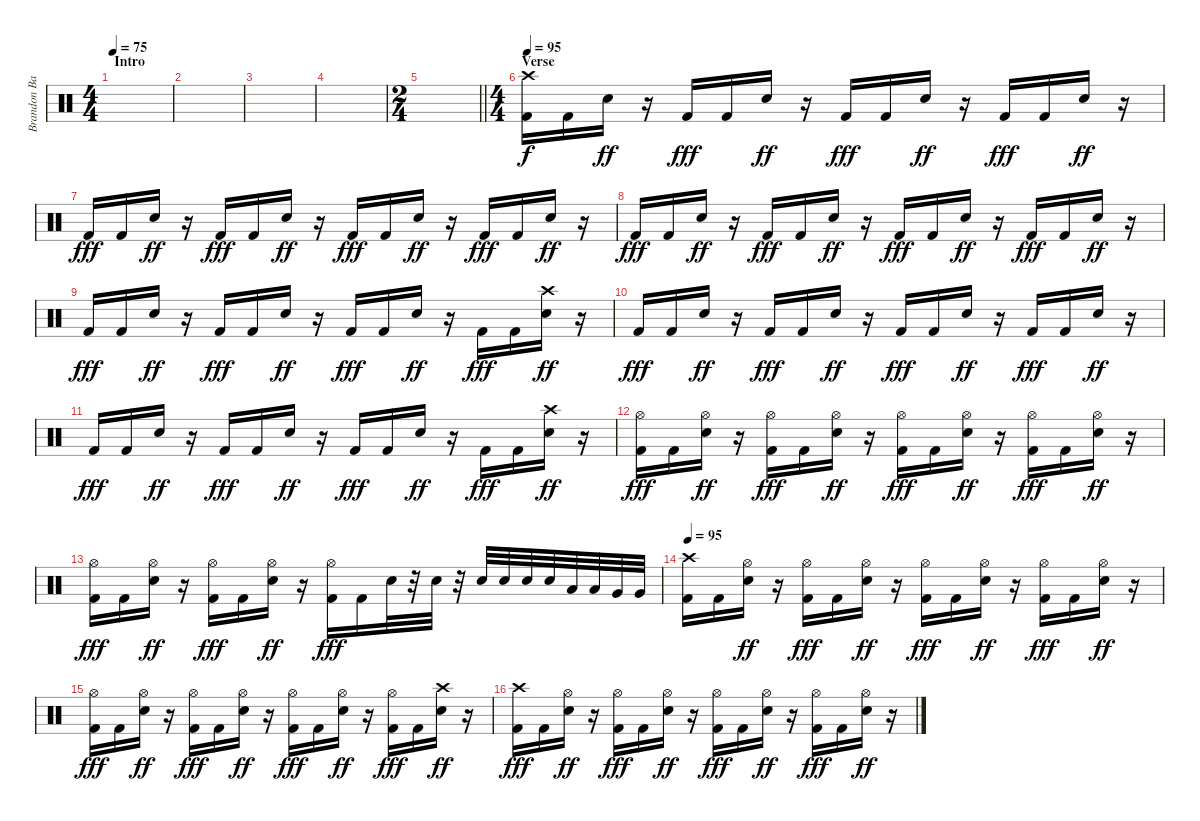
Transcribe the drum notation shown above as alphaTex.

\track ("Brandon Barnes" "Brandon Ba") {instrument percussion}
\staff {score}
\articulation defaults
\ts (4 4)
\section ("" "Intro")
\tempo 75
\clef neutral
\ks c
|
|
|
|
\ts (2 4)
\barLineRight lightlight
|
\ts (4 4)
\section ("" "Verse")
\tempo 95
("Crash high (hit)" "Kick (hit) 2").16 "Kick (hit) 2".16 "Electric Snare (hit)".16{dy ff} r.16 "Kick (hit) 2".16{dy fff} "Kick (hit) 2".16 "Electric Snare (hit)".16{dy ff} r.16 "Kick (hit) 2".16{dy fff} "Kick (hit) 2".16 "Electric Snare (hit)".16{dy ff} r.16 "Kick (hit) 2".16{dy fff} "Kick (hit) 2".16 "Electric Snare (hit)".16{dy ff} r.16 |
"Kick (hit) 2".16{dy fff} "Kick (hit) 2".16 "Electric Snare (hit)".16{dy ff} r.16 "Kick (hit) 2".16{dy fff} "Kick (hit) 2".16 "Electric Snare (hit)".16{dy ff} r.16 "Kick (hit) 2".16{dy fff} "Kick (hit) 2".16 "Electric Snare (hit)".16{dy ff} r.16 "Kick (hit) 2".16{dy fff} "Kick (hit) 2".16 "Electric Snare (hit)".16{dy ff} r.16 |
"Kick (hit) 2".16{dy fff} "Kick (hit) 2".16 "Electric Snare (hit)".16{dy ff} r.16 "Kick (hit) 2".16{dy fff} "Kick (hit) 2".16 "Electric Snare (hit)".16{dy ff} r.16 "Kick (hit) 2".16{dy fff} "Kick (hit) 2".16 "Electric Snare (hit)".16{dy ff} r.16 "Kick (hit) 2".16{dy fff} "Kick (hit) 2".16 "Electric Snare (hit)".16{dy ff} r.16 |
"Kick (hit) 2".16{dy fff} "Kick (hit) 2".16 "Electric Snare (hit)".16{dy ff} r.16 "Kick (hit) 2".16{dy fff} "Kick (hit) 2".16 "Electric Snare (hit)".16{dy ff} r.16 "Kick (hit) 2".16{dy fff} "Kick (hit) 2".16 "Electric Snare (hit)".16{dy ff} r.16 "Kick (hit) 2".16{dy fff} "Kick (hit) 2".16 ("Crash high (hit)" "Electric Snare (hit)").16{dy ff} r.16 |
"Kick (hit) 2".16{dy fff} "Kick (hit) 2".16 "Electric Snare (hit)".16{dy ff} r.16 "Kick (hit) 2".16{dy fff} "Kick (hit) 2".16 "Electric Snare (hit)".16{dy ff} r.16 "Kick (hit) 2".16{dy fff} "Kick (hit) 2".16 "Electric Snare (hit)".16{dy ff} r.16 "Kick (hit) 2".16{dy fff} "Kick (hit) 2".16 "Electric Snare (hit)".16{dy ff} r.16 |
"Kick (hit) 2".16{dy fff} "Kick (hit) 2".16 "Electric Snare (hit)".16{dy ff} r.16 "Kick (hit) 2".16{dy fff} "Kick (hit) 2".16 "Electric Snare (hit)".16{dy ff} r.16 "Kick (hit) 2".16{dy fff} "Kick (hit) 2".16 "Electric Snare (hit)".16{dy ff} r.16 "Kick (hit) 2".16{dy fff} "Kick (hit) 2".16 ("Crash high (hit)" "Electric Snare (hit)").16{dy ff} r.16 |
("Hi-Hat (open)" "Kick (hit) 2").16{dy fff} "Kick (hit) 2".16 ("Hi-Hat (open)" "Electric Snare (hit)").16{dy ff} r.16 ("Hi-Hat (open)" "Kick (hit) 2").16{dy fff} "Kick (hit) 2".16 ("Hi-Hat (open)" "Electric Snare (hit)").16{dy ff} r.16 ("Hi-Hat (open)" "Kick (hit) 2").16{dy fff} "Kick (hit) 2".16 ("Hi-Hat (open)" "Electric Snare (hit)").16{dy ff} r.16 ("Hi-Hat (open)" "Kick (hit) 2").16{dy fff} "Kick (hit) 2".16 ("Hi-Hat (open)" "Electric Snare (hit)").16{dy ff} r.16 |
("Hi-Hat (open)" "Kick (hit) 2").16{dy fff} "Kick (hit) 2".16 ("Hi-Hat (open)" "Electric Snare (hit)").16{dy ff} r.16 ("Hi-Hat (open)" "Kick (hit) 2").16{dy fff} "Kick (hit) 2".16 ("Hi-Hat (open)" "Electric Snare (hit)").16{dy ff} r.16 ("Hi-Hat (open)" "Kick (hit) 2").16{dy fff} "Kick (hit) 2".16 "Electric Snare (hit)".32 r.32 "Electric Snare (hit)".32 r.32 "Electric Snare (hit)".32 "Electric Snare (hit)".32 "Electric Snare (hit)".32 "Electric Snare (hit)".32 "Low Tom (hit)".32 "Low Tom (hit)".32 "Very Low Tom (hit)".32 "Very Low Tom (hit)".32 |
\tempo 95
("Crash high (hit)" "Kick (hit) 2").16 "Kick (hit) 2".16 ("Hi-Hat (open)" "Electric Snare (hit)").16{dy ff} r.16 ("Hi-Hat (open)" "Kick (hit) 2").16{dy fff} "Kick (hit) 2".16 ("Hi-Hat (open)" "Electric Snare (hit)").16{dy ff} r.16 ("Hi-Hat (open)" "Kick (hit) 2").16{dy fff} "Kick (hit) 2".16 ("Hi-Hat (open)" "Electric Snare (hit)").16{dy ff} r.16 ("Hi-Hat (open)" "Kick (hit) 2").16{dy fff} "Kick (hit) 2".16 ("Hi-Hat (open)" "Electric Snare (hit)").16{dy ff} r.16 |
("Hi-Hat (open)" "Kick (hit) 2").16{dy fff} "Kick (hit) 2".16 ("Hi-Hat (open)" "Electric Snare (hit)").16{dy ff} r.16 ("Hi-Hat (open)" "Kick (hit) 2").16{dy fff} "Kick (hit) 2".16 ("Hi-Hat (open)" "Electric Snare (hit)").16{dy ff} r.16 ("Hi-Hat (open)" "Kick (hit) 2").16{dy fff} "Kick (hit) 2".16 ("Hi-Hat (open)" "Electric Snare (hit)").16{dy ff} r.16 ("Hi-Hat (open)" "Kick (hit) 2").16{dy fff} "Kick (hit) 2".16 ("Crash high (hit)" "Electric Snare (hit)").16{dy ff} r.16 |
("Crash high (hit)" "Kick (hit) 2").16{dy fff} "Kick (hit) 2".16 ("Hi-Hat (open)" "Electric Snare (hit)").16{dy ff} r.16 ("Hi-Hat (open)" "Kick (hit) 2").16{dy fff} "Kick (hit) 2".16 ("Hi-Hat (open)" "Electric Snare (hit)").16{dy ff} r.16 ("Hi-Hat (open)" "Kick (hit) 2").16{dy fff} "Kick (hit) 2".16 ("Hi-Hat (open)" "Electric Snare (hit)").16{dy ff} r.16 ("Hi-Hat (open)" "Kick (hit) 2").16{dy fff} "Kick (hit) 2".16 ("Hi-Hat (open)" "Electric Snare (hit)").16{dy ff} r.16
